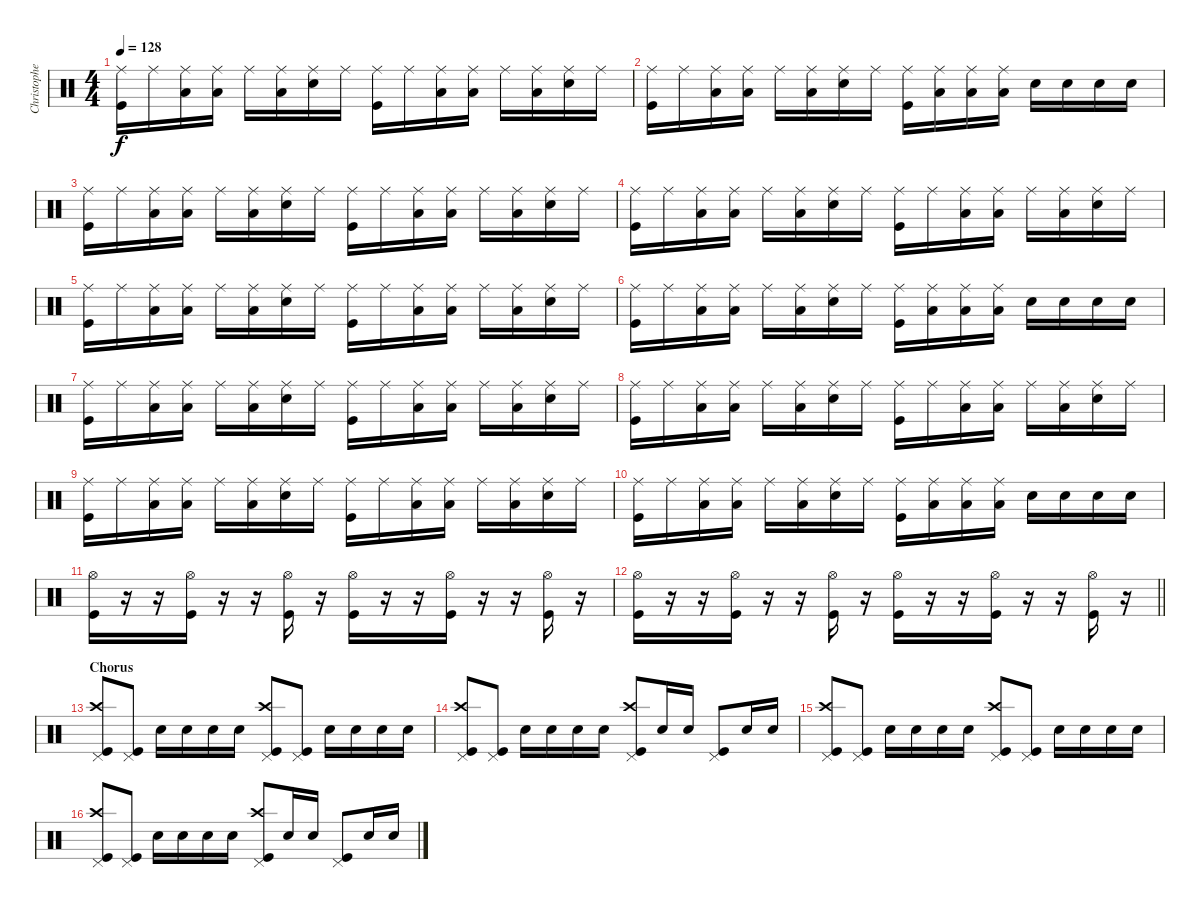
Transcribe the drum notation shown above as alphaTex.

\track ("Christopher - Drums" "Christophe") {instrument percussion}
\staff {score}
\articulation defaults
\ts (4 4)
\tempo 128
\clef neutral
\ks c
("Ride (middle)" "Kick (hit)").16{dy f} "Ride (middle)".16 ("Ride (middle)" "Low Tom (hit)").16 ("Ride (middle)" "Low Tom (hit)").16 "Ride (middle)".16 ("Ride (middle)" "Low Floor Tom (hit)").16 ("Ride (middle)" "Snare (hit) 2").16 "Ride (middle)".16 ("Ride (middle)" "Kick (hit)").16 "Ride (middle)".16 ("Ride (middle)" "Low Tom (hit)").16 ("Ride (middle)" "Low Tom (hit)").16 "Ride (middle)".16 ("Ride (middle)" "Low Floor Tom (hit)").16 ("Ride (middle)" "Snare (hit) 2").16 "Ride (middle)".16 |
("Ride (middle)" "Kick (hit)").16 "Ride (middle)".16 ("Ride (middle)" "Low Tom (hit)").16 ("Ride (middle)" "Low Tom (hit)").16 "Ride (middle)".16 ("Ride (middle)" "Low Floor Tom (hit)").16 ("Ride (middle)" "Snare (hit) 2").16 "Ride (middle)".16 ("Ride (middle)" "Kick (hit)").16 ("Ride (middle)" "Low Tom (hit)").16 ("Ride (middle)" "Low Tom (hit)").16 ("Ride (middle)" "Low Floor Tom (hit)").16 "Snare (hit) 2".16 "Snare (hit) 2".16 "Snare (hit) 2".16 "Snare (hit) 2".16 |
("Ride (middle)" "Kick (hit)").16 "Ride (middle)".16 ("Ride (middle)" "Low Tom (hit)").16 ("Ride (middle)" "Low Tom (hit)").16 "Ride (middle)".16 ("Ride (middle)" "Low Floor Tom (hit)").16 ("Ride (middle)" "Snare (hit) 2").16 "Ride (middle)".16 ("Ride (middle)" "Kick (hit)").16 "Ride (middle)".16 ("Ride (middle)" "Low Tom (hit)").16 ("Ride (middle)" "Low Tom (hit)").16 "Ride (middle)".16 ("Ride (middle)" "Low Floor Tom (hit)").16 ("Ride (middle)" "Snare (hit) 2").16 "Ride (middle)".16 |
("Ride (middle)" "Kick (hit)").16 "Ride (middle)".16 ("Ride (middle)" "Low Tom (hit)").16 ("Ride (middle)" "Low Tom (hit)").16 "Ride (middle)".16 ("Ride (middle)" "Low Floor Tom (hit)").16 ("Ride (middle)" "Snare (hit) 2").16 "Ride (middle)".16 ("Ride (middle)" "Kick (hit)").16 "Ride (middle)".16 ("Ride (middle)" "Low Tom (hit)").16 ("Ride (middle)" "Low Tom (hit)").16 "Ride (middle)".16 ("Ride (middle)" "Low Floor Tom (hit)").16 ("Ride (middle)" "Snare (hit) 2").16 "Ride (middle)".16 |
("Ride (middle)" "Kick (hit)").16 "Ride (middle)".16 ("Ride (middle)" "Low Tom (hit)").16 ("Ride (middle)" "Low Tom (hit)").16 "Ride (middle)".16 ("Ride (middle)" "Low Floor Tom (hit)").16 ("Ride (middle)" "Snare (hit) 2").16 "Ride (middle)".16 ("Ride (middle)" "Kick (hit)").16 "Ride (middle)".16 ("Ride (middle)" "Low Tom (hit)").16 ("Ride (middle)" "Low Tom (hit)").16 "Ride (middle)".16 ("Ride (middle)" "Low Floor Tom (hit)").16 ("Ride (middle)" "Snare (hit) 2").16 "Ride (middle)".16 |
("Ride (middle)" "Kick (hit)").16 "Ride (middle)".16 ("Ride (middle)" "Low Tom (hit)").16 ("Ride (middle)" "Low Tom (hit)").16 "Ride (middle)".16 ("Ride (middle)" "Low Floor Tom (hit)").16 ("Ride (middle)" "Snare (hit) 2").16 "Ride (middle)".16 ("Ride (middle)" "Kick (hit)").16 ("Ride (middle)" "Low Tom (hit)").16 ("Ride (middle)" "Low Tom (hit)").16 ("Ride (middle)" "Low Floor Tom (hit)").16 "Snare (hit) 2".16 "Snare (hit) 2".16 "Snare (hit) 2".16 "Snare (hit) 2".16 |
("Ride (middle)" "Kick (hit)").16 "Ride (middle)".16 ("Ride (middle)" "Low Tom (hit)").16 ("Ride (middle)" "Low Tom (hit)").16 "Ride (middle)".16 ("Ride (middle)" "Low Floor Tom (hit)").16 ("Ride (middle)" "Snare (hit) 2").16 "Ride (middle)".16 ("Ride (middle)" "Kick (hit)").16 "Ride (middle)".16 ("Ride (middle)" "Low Tom (hit)").16 ("Ride (middle)" "Low Tom (hit)").16 "Ride (middle)".16 ("Ride (middle)" "Low Floor Tom (hit)").16 ("Ride (middle)" "Snare (hit) 2").16 "Ride (middle)".16 |
("Ride (middle)" "Kick (hit)").16 "Ride (middle)".16 ("Ride (middle)" "Low Tom (hit)").16 ("Ride (middle)" "Low Tom (hit)").16 "Ride (middle)".16 ("Ride (middle)" "Low Floor Tom (hit)").16 ("Ride (middle)" "Snare (hit) 2").16 "Ride (middle)".16 ("Ride (middle)" "Kick (hit)").16 "Ride (middle)".16 ("Ride (middle)" "Low Tom (hit)").16 ("Ride (middle)" "Low Tom (hit)").16 "Ride (middle)".16 ("Ride (middle)" "Low Floor Tom (hit)").16 ("Ride (middle)" "Snare (hit) 2").16 "Ride (middle)".16 |
("Ride (middle)" "Kick (hit)").16 "Ride (middle)".16 ("Ride (middle)" "Low Tom (hit)").16 ("Ride (middle)" "Low Tom (hit)").16 "Ride (middle)".16 ("Ride (middle)" "Low Floor Tom (hit)").16 ("Ride (middle)" "Snare (hit) 2").16 "Ride (middle)".16 ("Ride (middle)" "Kick (hit)").16 "Ride (middle)".16 ("Ride (middle)" "Low Tom (hit)").16 ("Ride (middle)" "Low Tom (hit)").16 "Ride (middle)".16 ("Ride (middle)" "Low Floor Tom (hit)").16 ("Ride (middle)" "Snare (hit) 2").16 "Ride (middle)".16 |
("Ride (middle)" "Kick (hit)").16 "Ride (middle)".16 ("Ride (middle)" "Low Tom (hit)").16 ("Ride (middle)" "Low Tom (hit)").16 "Ride (middle)".16 ("Ride (middle)" "Low Floor Tom (hit)").16 ("Ride (middle)" "Snare (hit) 2").16 "Ride (middle)".16 ("Ride (middle)" "Kick (hit)").16 ("Ride (middle)" "Low Tom (hit)").16 ("Ride (middle)" "Low Tom (hit)").16 ("Ride (middle)" "Low Floor Tom (hit)").16 "Snare (hit) 2".16 "Snare (hit) 2".16 "Snare (hit) 2".16 "Snare (hit) 2".16 |
("Hi-Hat (open)" "Kick (hit)").16 r.16 r.16 ("Hi-Hat (open)" "Kick (hit)").16 r.16 r.16 ("Hi-Hat (open)" "Kick (hit)").16 r.16 ("Hi-Hat (open)" "Kick (hit)").16 r.16 r.16 ("Hi-Hat (open)" "Kick (hit)").16 r.16 r.16 ("Hi-Hat (open)" "Kick (hit)").16 r.16 |
\barLineRight lightlight
("Hi-Hat (open)" "Kick (hit)").16 r.16 r.16 ("Hi-Hat (open)" "Kick (hit)").16 r.16 r.16 ("Hi-Hat (open)" "Kick (hit)").16 r.16 ("Hi-Hat (open)" "Kick (hit)").16 r.16 r.16 ("Hi-Hat (open)" "Kick (hit)").16 r.16 r.16 ("Hi-Hat (open)" "Kick (hit)").16 r.16 |
\section ("" "Chorus")
("Crash high (hit)" "Pedal Hi-Hat (hit)" "Kick (hit)").8 ("Pedal Hi-Hat (hit)" "Kick (hit)").8 "Snare (hit) 2".16 "Snare (hit) 2".16 "Snare (hit) 2".16 "Snare (hit) 2".16 ("Crash high (hit)" "Pedal Hi-Hat (hit)" "Kick (hit)").8 ("Pedal Hi-Hat (hit)" "Kick (hit)").8 "Snare (hit) 2".16 "Snare (hit) 2".16 "Snare (hit) 2".16 "Snare (hit) 2".16 |
("Crash high (hit)" "Pedal Hi-Hat (hit)" "Kick (hit)").8 ("Pedal Hi-Hat (hit)" "Kick (hit)").8 "Snare (hit) 2".16 "Snare (hit) 2".16 "Snare (hit) 2".16 "Snare (hit) 2".16 ("Crash high (hit)" "Pedal Hi-Hat (hit)" "Kick (hit)").8 "Snare (hit) 2".16 "Snare (hit) 2".16 ("Pedal Hi-Hat (hit)" "Kick (hit)").8 "Snare (hit) 2".16 "Snare (hit) 2".16 |
("Crash high (hit)" "Pedal Hi-Hat (hit)" "Kick (hit)").8 ("Pedal Hi-Hat (hit)" "Kick (hit)").8 "Snare (hit) 2".16 "Snare (hit) 2".16 "Snare (hit) 2".16 "Snare (hit) 2".16 ("Crash high (hit)" "Pedal Hi-Hat (hit)" "Kick (hit)").8 ("Pedal Hi-Hat (hit)" "Kick (hit)").8 "Snare (hit) 2".16 "Snare (hit) 2".16 "Snare (hit) 2".16 "Snare (hit) 2".16 |
("Crash high (hit)" "Pedal Hi-Hat (hit)" "Kick (hit)").8 ("Pedal Hi-Hat (hit)" "Kick (hit)").8 "Snare (hit) 2".16 "Snare (hit) 2".16 "Snare (hit) 2".16 "Snare (hit) 2".16 ("Crash high (hit)" "Pedal Hi-Hat (hit)" "Kick (hit)").8 "Snare (hit) 2".16 "Snare (hit) 2".16 ("Pedal Hi-Hat (hit)" "Kick (hit)").8 "Snare (hit) 2".16 "Snare (hit) 2".16
